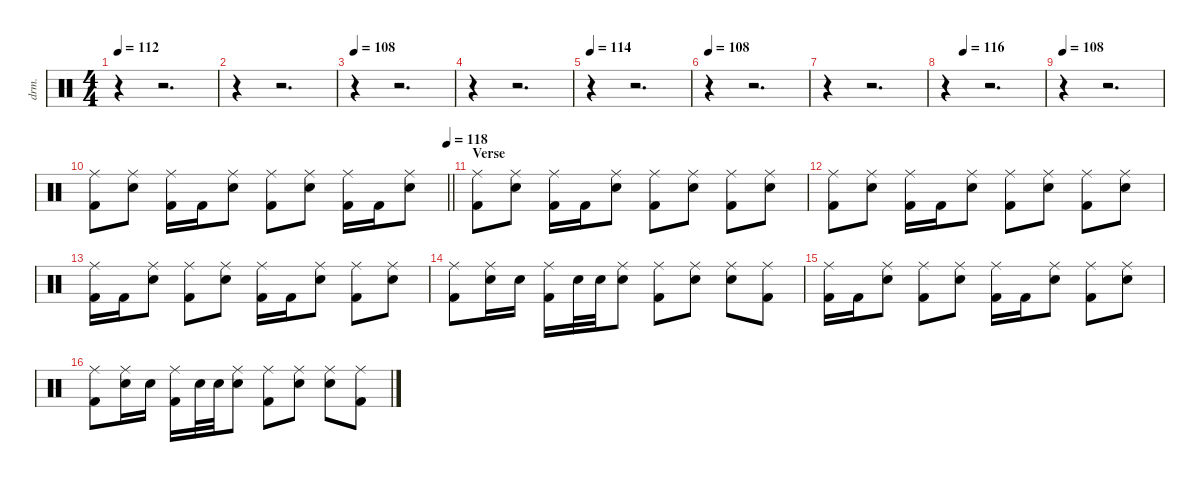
\defaultSystemsLayout 4
\hideDynamics
\bracketExtendMode nobrackets
\otherSystemsTrackNameOrientation horizontal
\track ("Drums" "drm.") {instrument percussion}
\staff {score}
\articulation defaults
\ts (4 4)
\tempo 112
\clef neutral
\ks c
r.4{dy f beam Down} r.2{d beam Down} |
r.4{beam Down} r.2{d beam Down} |
\tempo 108
r.4{beam Down} r.2{d beam Down} |
r.4{beam Down} r.2{d beam Down} |
\tempo 114
r.4{beam Down} r.2{d beam Down} |
\tempo 108
r.4{beam Down} r.2{d beam Down} |
r.4{beam Down} r.2{d beam Down} |
\tempo (116 0.1875)
r.4{beam Down} r.2{d beam Down} |
\tempo 108
r.4{beam Down} r.2{d beam Down} |
\tempo (118 1)
\barLineRight lightlight
("Ride (middle)" "Kick (hit) 2").8{beam Down} ("Ride (middle)" "Snare (hit) 2").8{beam Down} ("Ride (middle)" "Kick (hit) 2").16{beam Down} "Kick (hit) 2".16{beam Down} ("Ride (middle)" "Snare (hit) 2").8{beam Down} ("Ride (middle)" "Kick (hit) 2").8{beam Down} ("Ride (middle)" "Snare (hit) 2").8{beam Down} ("Ride (middle)" "Kick (hit) 2").16{beam Down} "Kick (hit) 2".16{beam Down} ("Ride (middle)" "Snare (hit) 2").8{beam Down} |
\section ("" "Verse")
("Ride (middle)" "Kick (hit) 2").8{beam Down} ("Ride (middle)" "Snare (hit) 2").8{beam Down} ("Ride (middle)" "Kick (hit) 2").16{beam Down} "Kick (hit) 2".16{beam Down} ("Ride (middle)" "Snare (hit) 2").8{beam Down} ("Ride (middle)" "Kick (hit) 2").8{beam Down} ("Ride (middle)" "Snare (hit) 2").8{beam Down} ("Ride (middle)" "Kick (hit) 2").8{beam Down} ("Ride (middle)" "Snare (hit) 2").8{beam Down} |
("Ride (middle)" "Kick (hit) 2").8{beam Down} ("Ride (middle)" "Snare (hit) 2").8{beam Down} ("Ride (middle)" "Kick (hit) 2").16{beam Down} "Kick (hit) 2".16{beam Down} ("Ride (middle)" "Snare (hit) 2").8{beam Down} ("Ride (middle)" "Kick (hit) 2").8{beam Down} ("Ride (middle)" "Snare (hit) 2").8{beam Down} ("Ride (middle)" "Kick (hit) 2").8{beam Down} ("Ride (middle)" "Snare (hit) 2").8{beam Down} |
("Ride (middle)" "Kick (hit) 2").16{beam Down} "Kick (hit) 2".16{beam Down} ("Ride (middle)" "Snare (hit) 2").8{beam Down} ("Ride (middle)" "Kick (hit) 2").8{beam Down} ("Ride (middle)" "Snare (hit) 2").8{beam Down} ("Ride (middle)" "Kick (hit) 2").16{beam Down} "Kick (hit) 2".16{beam Down} ("Ride (middle)" "Snare (hit) 2").8{beam Down} ("Ride (middle)" "Kick (hit) 2").8{beam Down} ("Ride (middle)" "Snare (hit) 2").8{beam Down} |
("Ride (middle)" "Kick (hit) 2").8{beam Down} ("Ride (middle)" "Snare (hit) 2").16{beam Down} "Snare (hit) 2".16{beam Down} ("Ride (middle)" "Kick (hit) 2").16{beam Down} "Snare (hit) 2".32{dy mp beam Down} "Snare (hit) 2".32{dy mf beam Down} ("Ride (middle)" "Snare (hit) 2").8{dy f beam Down} ("Ride (middle)" "Kick (hit) 2").8{beam Down} ("Ride (middle)" "Snare (hit) 2").8{beam Down} ("Ride (middle)" "Snare (hit) 2").8{beam Down} ("Ride (middle)" "Kick (hit) 2").8{beam Down} |
("Ride (middle)" "Kick (hit) 2").16{beam Down} "Kick (hit) 2".16{beam Down} ("Ride (middle)" "Snare (hit) 2").8{beam Down} ("Ride (middle)" "Kick (hit) 2").8{beam Down} ("Ride (middle)" "Snare (hit) 2").8{beam Down} ("Ride (middle)" "Kick (hit) 2").16{beam Down} "Kick (hit) 2".16{beam Down} ("Ride (middle)" "Snare (hit) 2").8{beam Down} ("Ride (middle)" "Kick (hit) 2").8{beam Down} ("Ride (middle)" "Snare (hit) 2").8{beam Down} |
("Ride (middle)" "Kick (hit) 2").8{beam Down} ("Ride (middle)" "Snare (hit) 2").16{beam Down} "Snare (hit) 2".16{beam Down} ("Ride (middle)" "Kick (hit) 2").16{beam Down} "Snare (hit) 2".32{dy mp beam Down} "Snare (hit) 2".32{dy mf beam Down} ("Ride (middle)" "Snare (hit) 2").8{dy f beam Down} ("Ride (middle)" "Kick (hit) 2").8{beam Down} ("Ride (middle)" "Snare (hit) 2").8{beam Down} ("Ride (middle)" "Snare (hit) 2").8{beam Down} ("Ride (middle)" "Kick (hit) 2").8{beam Down}
